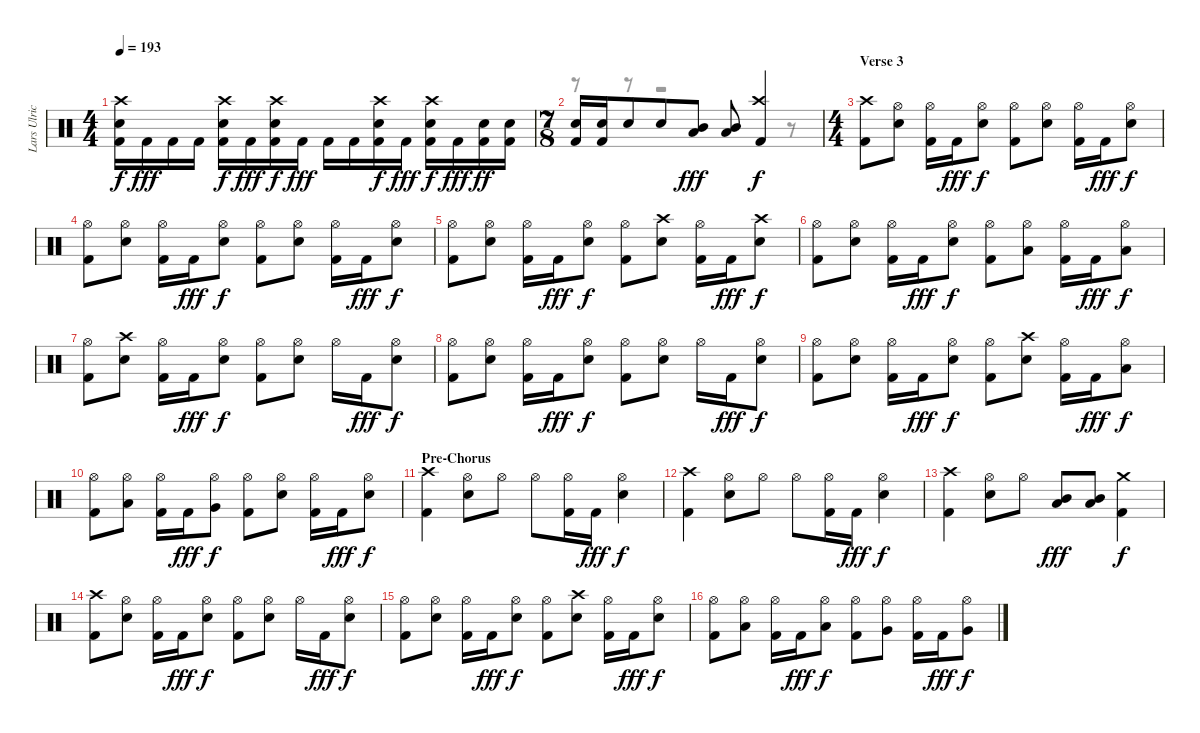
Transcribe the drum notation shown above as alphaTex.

\track ("Lars Ulrich - Drums" "Lars Ulric") {instrument percussion}
\staff {score}
\articulation defaults
\voice
\ts (4 4)
\tempo 193
\clef neutral
\ks c
("Crash high (hit)" "Snare (hit) 2" "Kick (hit) 2").16{dy f} "Kick (hit) 2".16{dy fff} "Kick (hit) 2".16 "Kick (hit) 2".16 ("Crash high (hit)" "Snare (hit) 2" "Kick (hit) 2").16{dy f} "Kick (hit) 2".16{dy fff} ("Crash high (hit)" "Snare (hit) 2" "Kick (hit) 2").16{dy f} "Kick (hit) 2".16{dy fff} "Kick (hit) 2".16 "Kick (hit) 2".16 ("Crash high (hit)" "Snare (hit) 2" "Kick (hit) 2").16{dy f} "Kick (hit) 2".16{dy fff} ("Crash high (hit)" "Snare (hit) 2" "Kick (hit) 2").16{dy f} "Kick (hit) 2".16{dy fff} ("Snare (hit) 2" "Kick (hit) 2").16{dy ff} ("Snare (hit) 2" "Kick (hit) 2").16 |
\ts (7 8)
("Snare (hit) 2" "Kick (hit) 2").16 ("Snare (hit) 2" "Kick (hit) 2").16 "Snare (hit) 2".8 "Snare (hit) 2".8 ("Mid Tom (hit)" "Low Tom (hit)").8{dy fff} ("Mid Tom (hit)" "Low Tom (hit)").8 ("Crash high (hit)" "Kick (hit) 2").4{dy f} |
\ts (4 4)
\section ("" "Verse 3")
("Crash high (hit)" "Kick (hit) 2").8 ("Hi-Hat (open)" "Snare (hit) 2").8 ("Hi-Hat (open)" "Kick (hit) 2").16 "Kick (hit) 2".16{dy fff} ("Hi-Hat (open)" "Snare (hit) 2").8{dy f} ("Hi-Hat (open)" "Kick (hit) 2").8 ("Hi-Hat (open)" "Snare (hit) 2").8 ("Hi-Hat (open)" "Kick (hit) 2").16 "Kick (hit) 2".16{dy fff} ("Hi-Hat (open)" "Snare (hit) 2").8{dy f} |
("Hi-Hat (open)" "Kick (hit) 2").8 ("Hi-Hat (open)" "Snare (hit) 2").8 ("Hi-Hat (open)" "Kick (hit) 2").16 "Kick (hit) 2".16{dy fff} ("Hi-Hat (open)" "Snare (hit) 2").8{dy f} ("Hi-Hat (open)" "Kick (hit) 2").8 ("Hi-Hat (open)" "Snare (hit) 2").8 ("Hi-Hat (open)" "Kick (hit) 2").16 "Kick (hit) 2".16{dy fff} ("Hi-Hat (open)" "Snare (hit) 2").8{dy f} |
("Hi-Hat (open)" "Kick (hit) 2").8 ("Hi-Hat (open)" "Snare (hit) 2").8 ("Hi-Hat (open)" "Kick (hit) 2").16 "Kick (hit) 2".16{dy fff} ("Hi-Hat (open)" "Snare (hit) 2").8{dy f} ("Hi-Hat (open)" "Kick (hit) 2").8 ("Crash high (hit)" "Snare (hit) 2").8 ("Hi-Hat (open)" "Kick (hit) 2").16 "Kick (hit) 2".16{dy fff} ("Crash high (hit)" "Snare (hit) 2").8{dy f} |
("Hi-Hat (open)" "Kick (hit) 2").8 ("Hi-Hat (open)" "Snare (hit) 2").8 ("Hi-Hat (open)" "Kick (hit) 2").16 "Kick (hit) 2".16{dy fff} ("Hi-Hat (open)" "Snare (hit) 2").8{dy f} ("Hi-Hat (open)" "Kick (hit) 2").8 ("Hi-Hat (open)" "Low Tom (hit)").8 ("Hi-Hat (open)" "Kick (hit) 2").16 "Kick (hit) 2".16{dy fff} ("Hi-Hat (open)" "Low Tom (hit)").8{dy f} |
("Hi-Hat (open)" "Kick (hit) 2").8 ("Crash high (hit)" "Snare (hit) 2").8 ("Hi-Hat (open)" "Kick (hit) 2").16 "Kick (hit) 2".16{dy fff} ("Hi-Hat (open)" "Snare (hit) 2").8{dy f} ("Hi-Hat (open)" "Kick (hit) 2").8 ("Hi-Hat (open)" "Snare (hit) 2").8 "Hi-Hat (open)".16 "Kick (hit) 2".16{dy fff} ("Hi-Hat (open)" "Snare (hit) 2").8{dy f} |
("Hi-Hat (open)" "Kick (hit) 2").8 ("Hi-Hat (open)" "Snare (hit) 2").8 ("Hi-Hat (open)" "Kick (hit) 2").16 "Kick (hit) 2".16{dy fff} ("Hi-Hat (open)" "Snare (hit) 2").8{dy f} ("Hi-Hat (open)" "Kick (hit) 2").8 ("Hi-Hat (open)" "Snare (hit) 2").8 "Hi-Hat (open)".16 "Kick (hit) 2".16{dy fff} ("Hi-Hat (open)" "Snare (hit) 2").8{dy f} |
("Hi-Hat (open)" "Kick (hit) 2").8 ("Hi-Hat (open)" "Snare (hit) 2").8 ("Hi-Hat (open)" "Kick (hit) 2").16 "Kick (hit) 2".16{dy fff} ("Hi-Hat (open)" "Snare (hit) 2").8{dy f} ("Hi-Hat (open)" "Kick (hit) 2").8 ("Crash high (hit)" "Snare (hit) 2").8 ("Hi-Hat (open)" "Kick (hit) 2").16 "Kick (hit) 2".16{dy fff} ("Hi-Hat (open)" "Low Tom (hit)").8{dy f} |
("Hi-Hat (open)" "Kick (hit) 2").8 ("Hi-Hat (open)" "Low Tom (hit)").8 ("Hi-Hat (open)" "Kick (hit) 2").16 "Kick (hit) 2".16{dy fff} ("Hi-Hat (open)" "Very Low Tom (hit)").8{dy f} ("Hi-Hat (open)" "Kick (hit) 2").8 ("Hi-Hat (open)" "Snare (hit) 2").8 ("Hi-Hat (open)" "Kick (hit) 2").16 "Kick (hit) 2".16{dy fff} ("Hi-Hat (open)" "Snare (hit) 2").8{dy f} |
\section ("" "Pre-Chorus")
("Crash high (hit)" "Kick (hit) 2").4 ("Hi-Hat (open)" "Snare (hit) 2").8 "Hi-Hat (open)".8 "Hi-Hat (open)".8 ("Hi-Hat (open)" "Kick (hit) 2").16 "Kick (hit) 2".16{dy fff} ("Hi-Hat (open)" "Snare (hit) 2").4{dy f} |
("Crash high (hit)" "Kick (hit) 2").4 ("Hi-Hat (open)" "Snare (hit) 2").8 "Hi-Hat (open)".8 "Hi-Hat (open)".8 ("Hi-Hat (open)" "Kick (hit) 2").16 "Kick (hit) 2".16{dy fff} ("Hi-Hat (open)" "Snare (hit) 2").4{dy f} |
("Crash high (hit)" "Kick (hit) 2").4 ("Hi-Hat (open)" "Snare (hit) 2").8 "Hi-Hat (open)".8 ("Mid Tom (hit)" "Low Tom (hit)").8{dy fff} ("Mid Tom (hit)" "Low Tom (hit)").8 ("Crash medium (hit)" "Kick (hit) 2").4{dy f} |
("Crash high (hit)" "Kick (hit) 2").8 ("Hi-Hat (open)" "Snare (hit) 2").8 ("Hi-Hat (open)" "Kick (hit) 2").16 "Kick (hit) 2".16{dy fff} ("Hi-Hat (open)" "Snare (hit) 2").8{dy f} ("Hi-Hat (open)" "Kick (hit) 2").8 ("Hi-Hat (open)" "Snare (hit) 2").8 "Hi-Hat (open)".16 "Kick (hit) 2".16{dy fff} ("Hi-Hat (open)" "Snare (hit) 2").8{dy f} |
("Hi-Hat (open)" "Kick (hit) 2").8 ("Hi-Hat (open)" "Snare (hit) 2").8 ("Hi-Hat (open)" "Kick (hit) 2").16 "Kick (hit) 2".16{dy fff} ("Hi-Hat (open)" "Snare (hit) 2").8{dy f} ("Hi-Hat (open)" "Kick (hit) 2").8 ("Crash high (hit)" "Snare (hit) 2").8 ("Hi-Hat (open)" "Kick (hit) 2").16 "Kick (hit) 2".16{dy fff} ("Hi-Hat (open)" "Snare (hit) 2").8{dy f} |
("Hi-Hat (open)" "Kick (hit) 2").8 ("Hi-Hat (open)" "Low Tom (hit)").8 ("Hi-Hat (open)" "Kick (hit) 2").16 "Kick (hit) 2".16{dy fff} ("Hi-Hat (open)" "Low Tom (hit)").8{dy f} ("Hi-Hat (open)" "Kick (hit) 2").8 ("Hi-Hat (open)" "Very Low Tom (hit)").8 ("Hi-Hat (open)" "Kick (hit) 2").16 "Kick (hit) 2".16{dy fff} ("Hi-Hat (open)" "Very Low Tom (hit)").8{dy f}
\voice
\clef neutral
\ottava regular
\simile none
\ks c
|
r.8 r.8 r.2 r.8 |
|
|
|
|
|
|
|
|
|
|
|
|
|
